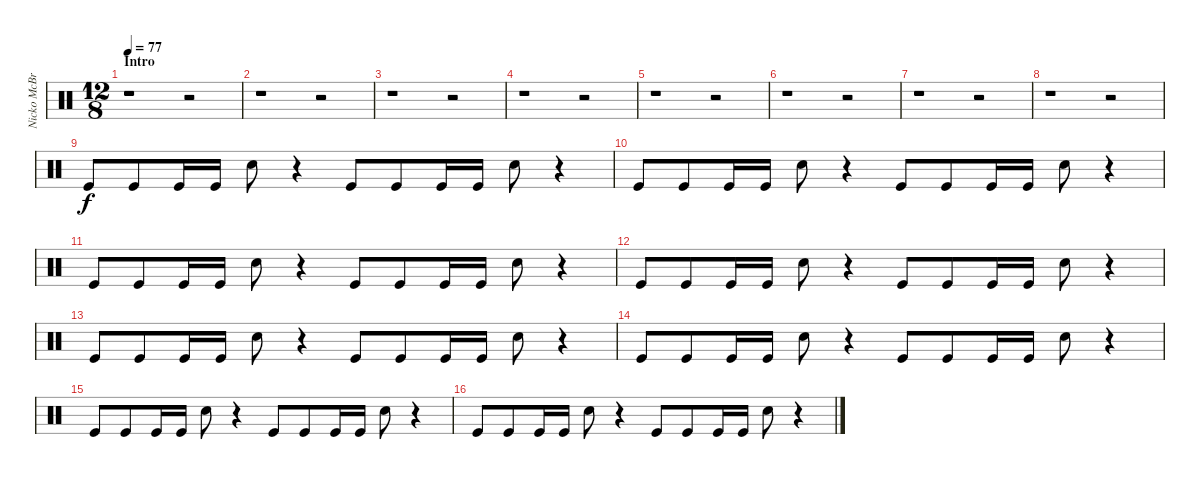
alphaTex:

\track ("Nicko McBrain" "Nicko McBr") {instrument percussion}
\staff {score}
\articulation defaults
\ts (12 8)
\section ("" "Intro")
\tempo 77
\clef neutral
\ks c
r.1{dy f} r.2 |
r.1 r.2 |
r.1 r.2 |
r.1 r.2 |
r.1 r.2 |
r.1 r.2 |
r.1 r.2 |
r.1 r.2 |
"Kick (hit)".8 "Kick (hit)".8 "Kick (hit)".16 "Kick (hit)".16 "Snare (hit) 2".8 r.4 "Kick (hit)".8 "Kick (hit)".8 "Kick (hit)".16 "Kick (hit)".16 "Snare (hit) 2".8 r.4 |
"Kick (hit)".8 "Kick (hit)".8 "Kick (hit)".16 "Kick (hit)".16 "Snare (hit) 2".8 r.4 "Kick (hit)".8 "Kick (hit)".8 "Kick (hit)".16 "Kick (hit)".16 "Snare (hit) 2".8 r.4 |
"Kick (hit)".8 "Kick (hit)".8 "Kick (hit)".16 "Kick (hit)".16 "Snare (hit) 2".8 r.4 "Kick (hit)".8 "Kick (hit)".8 "Kick (hit)".16 "Kick (hit)".16 "Snare (hit) 2".8 r.4 |
"Kick (hit)".8 "Kick (hit)".8 "Kick (hit)".16 "Kick (hit)".16 "Snare (hit) 2".8 r.4 "Kick (hit)".8 "Kick (hit)".8 "Kick (hit)".16 "Kick (hit)".16 "Snare (hit) 2".8 r.4 |
"Kick (hit)".8 "Kick (hit)".8 "Kick (hit)".16 "Kick (hit)".16 "Snare (hit) 2".8 r.4 "Kick (hit)".8 "Kick (hit)".8 "Kick (hit)".16 "Kick (hit)".16 "Snare (hit) 2".8 r.4 |
"Kick (hit)".8 "Kick (hit)".8 "Kick (hit)".16 "Kick (hit)".16 "Snare (hit) 2".8 r.4 "Kick (hit)".8 "Kick (hit)".8 "Kick (hit)".16 "Kick (hit)".16 "Snare (hit) 2".8 r.4 |
"Kick (hit)".8 "Kick (hit)".8 "Kick (hit)".16 "Kick (hit)".16 "Snare (hit) 2".8 r.4 "Kick (hit)".8 "Kick (hit)".8 "Kick (hit)".16 "Kick (hit)".16 "Snare (hit) 2".8 r.4 |
"Kick (hit)".8 "Kick (hit)".8 "Kick (hit)".16 "Kick (hit)".16 "Snare (hit) 2".8 r.4 "Kick (hit)".8 "Kick (hit)".8 "Kick (hit)".16 "Kick (hit)".16 "Snare (hit) 2".8 r.4
